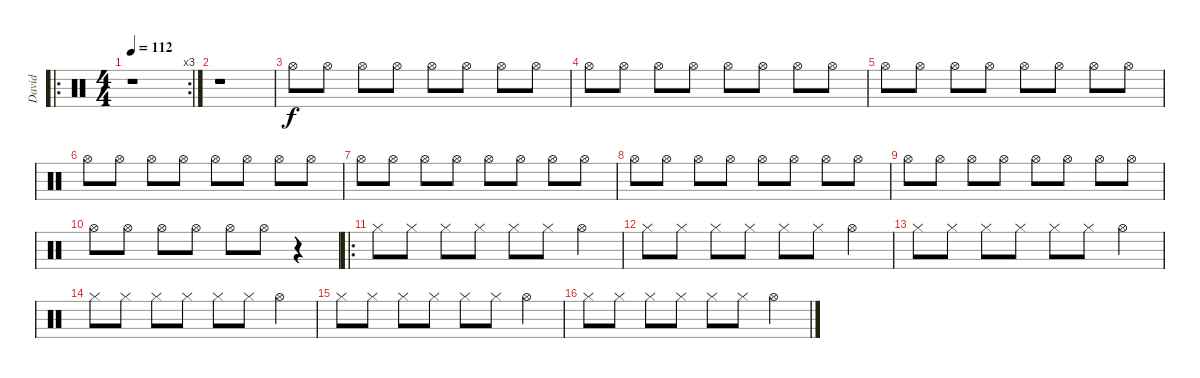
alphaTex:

\track ("David" "David") {instrument percussion}
\staff {score}
\articulation defaults
\ro
\rc 3
\ts (4 4)
\tempo 112
\clef neutral
\ks c
r.1{dy f} |
r.1 |
"Hi-Hat (open)".8 "Hi-Hat (open)".8 "Hi-Hat (open)".8 "Hi-Hat (open)".8 "Hi-Hat (open)".8 "Hi-Hat (open)".8 "Hi-Hat (open)".8 "Hi-Hat (open)".8 |
"Hi-Hat (open)".8 "Hi-Hat (open)".8 "Hi-Hat (open)".8 "Hi-Hat (open)".8 "Hi-Hat (open)".8 "Hi-Hat (open)".8 "Hi-Hat (open)".8 "Hi-Hat (open)".8 |
"Hi-Hat (open)".8 "Hi-Hat (open)".8 "Hi-Hat (open)".8 "Hi-Hat (open)".8 "Hi-Hat (open)".8 "Hi-Hat (open)".8 "Hi-Hat (open)".8 "Hi-Hat (open)".8 |
"Hi-Hat (open)".8 "Hi-Hat (open)".8 "Hi-Hat (open)".8 "Hi-Hat (open)".8 "Hi-Hat (open)".8 "Hi-Hat (open)".8 "Hi-Hat (open)".8 "Hi-Hat (open)".8 |
"Hi-Hat (open)".8 "Hi-Hat (open)".8 "Hi-Hat (open)".8 "Hi-Hat (open)".8 "Hi-Hat (open)".8 "Hi-Hat (open)".8 "Hi-Hat (open)".8 "Hi-Hat (open)".8 |
"Hi-Hat (open)".8 "Hi-Hat (open)".8 "Hi-Hat (open)".8 "Hi-Hat (open)".8 "Hi-Hat (open)".8 "Hi-Hat (open)".8 "Hi-Hat (open)".8 "Hi-Hat (open)".8 |
"Hi-Hat (open)".8 "Hi-Hat (open)".8 "Hi-Hat (open)".8 "Hi-Hat (open)".8 "Hi-Hat (open)".8 "Hi-Hat (open)".8 "Hi-Hat (open)".8 "Hi-Hat (open)".8 |
"Hi-Hat (open)".8 "Hi-Hat (open)".8 "Hi-Hat (open)".8 "Hi-Hat (open)".8 "Hi-Hat (open)".8 "Hi-Hat (open)".8 r.4 |
\ro "Hi-Hat (closed)".8 "Hi-Hat (closed)".8 "Hi-Hat (closed)".8 "Hi-Hat (closed)".8 "Hi-Hat (closed)".8 "Hi-Hat (closed)".8 "Hi-Hat (open)".4
|
"Hi-Hat (closed)".8 "Hi-Hat (closed)".8 "Hi-Hat (closed)".8 "Hi-Hat (closed)".8 "Hi-Hat (closed)".8 "Hi-Hat (closed)".8 "Hi-Hat (open)".4 |
"Hi-Hat (closed)".8 "Hi-Hat (closed)".8 "Hi-Hat (closed)".8 "Hi-Hat (closed)".8 "Hi-Hat (closed)".8 "Hi-Hat (closed)".8 "Hi-Hat (open)".4 |
"Hi-Hat (closed)".8 "Hi-Hat (closed)".8 "Hi-Hat (closed)".8 "Hi-Hat (closed)".8 "Hi-Hat (closed)".8 "Hi-Hat (closed)".8 "Hi-Hat (open)".4 |
"Hi-Hat (closed)".8 "Hi-Hat (closed)".8 "Hi-Hat (closed)".8 "Hi-Hat (closed)".8 "Hi-Hat (closed)".8 "Hi-Hat (closed)".8 "Hi-Hat (open)".4 |
"Hi-Hat (closed)".8 "Hi-Hat (closed)".8 "Hi-Hat (closed)".8 "Hi-Hat (closed)".8 "Hi-Hat (closed)".8 "Hi-Hat (closed)".8 "Hi-Hat (open)".4
